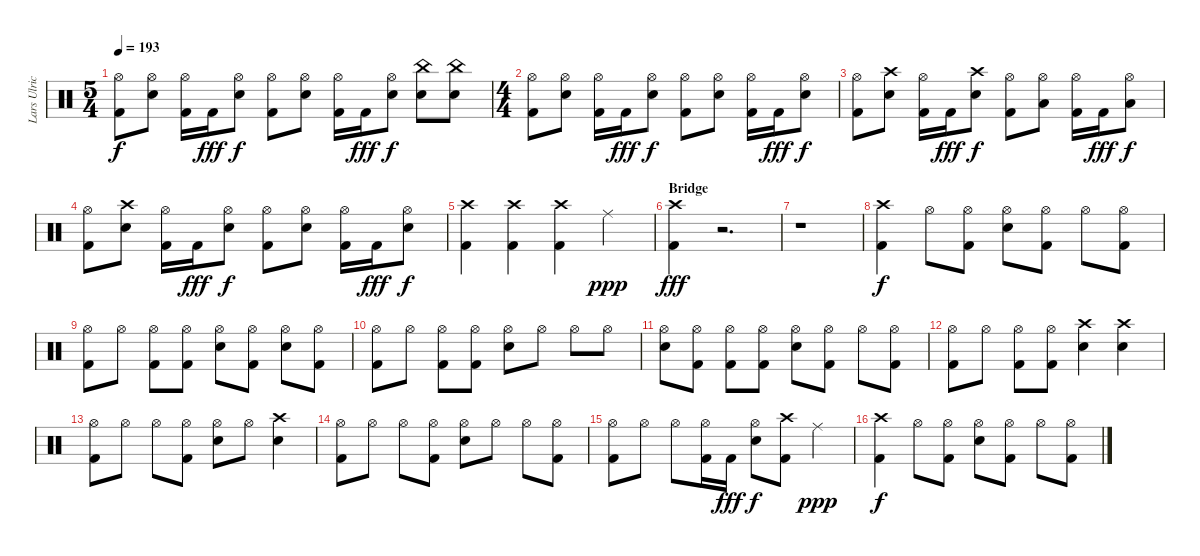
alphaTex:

\track ("Lars Ulrich - Drums" "Lars Ulric") {instrument percussion}
\staff {score}
\articulation defaults
\ts (5 4)
\tempo 193
\clef neutral
\ks c
("Hi-Hat (open)" "Kick (hit) 2").8{dy f} ("Hi-Hat (open)" "Snare (hit) 2").8 ("Hi-Hat (open)" "Kick (hit) 2").16 "Kick (hit) 2".16{dy fff} ("Hi-Hat (open)" "Snare (hit) 2").8{dy f} ("Hi-Hat (open)" "Kick (hit) 2").8 ("Hi-Hat (open)" "Snare (hit) 2").8 ("Hi-Hat (open)" "Kick (hit) 2").16 "Kick (hit) 2".16{dy fff} ("Hi-Hat (open)" "Snare (hit) 2").8{dy f} ("China (hit)" "Snare (hit) 2").8 ("China (hit)" "Snare (hit) 2").8 |
\ts (4 4)
("Hi-Hat (open)" "Kick (hit) 2").8 ("Hi-Hat (open)" "Snare (hit) 2").8 ("Hi-Hat (open)" "Kick (hit) 2").16 "Kick (hit) 2".16{dy fff} ("Hi-Hat (open)" "Snare (hit) 2").8{dy f} ("Hi-Hat (open)" "Kick (hit) 2").8 ("Hi-Hat (open)" "Snare (hit) 2").8 ("Hi-Hat (open)" "Kick (hit) 2").16 "Kick (hit) 2".16{dy fff} ("Hi-Hat (open)" "Snare (hit) 2").8{dy f} |
("Hi-Hat (open)" "Kick (hit) 2").8 ("Crash high (hit)" "Snare (hit) 2").8 ("Hi-Hat (open)" "Kick (hit) 2").16 "Kick (hit) 2".16{dy fff} ("Crash high (hit)" "Snare (hit) 2").8{dy f} ("Hi-Hat (open)" "Kick (hit) 2").8 ("Hi-Hat (open)" "Low Tom (hit)").8 ("Hi-Hat (open)" "Kick (hit) 2").16 "Kick (hit) 2".16{dy fff} ("Hi-Hat (open)" "Low Tom (hit)").8{dy f} |
("Hi-Hat (open)" "Kick (hit) 2").8 ("Crash high (hit)" "Snare (hit) 2").8 ("Hi-Hat (open)" "Kick (hit) 2").16 "Kick (hit) 2".16{dy fff} ("Hi-Hat (open)" "Snare (hit) 2").8{dy f} ("Hi-Hat (open)" "Kick (hit) 2").8 ("Hi-Hat (open)" "Snare (hit) 2").8 ("Hi-Hat (open)" "Kick (hit) 2").16 "Kick (hit) 2".16{dy fff} ("Hi-Hat (open)" "Snare (hit) 2").8{dy f} |
("Crash high (hit)" "Kick (hit) 2").4 ("Crash high (hit)" "Kick (hit) 2").4 ("Crash high (hit)" "Kick (hit) 2").4 "Ride (middle)".4{dy ppp} |
\section ("" "Bridge")
("Crash high (hit)" "Kick (hit) 2").4{dy fff} r.2{d} |
r.1 |
("Crash high (hit)" "Kick (hit) 2").4{dy f} "Hi-Hat (open)".8 ("Hi-Hat (open)" "Kick (hit) 2").8 ("Hi-Hat (open)" "Snare (hit) 2").8 ("Hi-Hat (open)" "Kick (hit) 2").8 "Hi-Hat (open)".8 ("Hi-Hat (open)" "Kick (hit) 2").8 |
("Hi-Hat (open)" "Kick (hit) 2").8 "Hi-Hat (open)".8 ("Hi-Hat (open)" "Kick (hit) 2").8 ("Hi-Hat (open)" "Kick (hit) 2").8 ("Hi-Hat (open)" "Snare (hit) 2").8 ("Hi-Hat (open)" "Kick (hit) 2").8 ("Hi-Hat (open)" "Snare (hit) 2").8 ("Hi-Hat (open)" "Kick (hit) 2").8 |
("Hi-Hat (open)" "Kick (hit) 2").8 "Hi-Hat (open)".8 ("Hi-Hat (open)" "Kick (hit) 2").8 ("Hi-Hat (open)" "Kick (hit) 2").8 ("Hi-Hat (open)" "Snare (hit) 2").8 "Hi-Hat (open)".8 "Hi-Hat (open)".8 "Hi-Hat (open)".8 |
("Hi-Hat (open)" "Snare (hit) 2").8 ("Hi-Hat (open)" "Kick (hit) 2").8 ("Hi-Hat (open)" "Kick (hit) 2").8 ("Hi-Hat (open)" "Kick (hit) 2").8 ("Hi-Hat (open)" "Snare (hit) 2").8 ("Hi-Hat (open)" "Kick (hit) 2").8 "Hi-Hat (open)".8 ("Hi-Hat (open)" "Kick (hit) 2").8 |
("Hi-Hat (open)" "Kick (hit) 2").8 "Hi-Hat (open)".8 ("Hi-Hat (open)" "Kick (hit) 2").8 ("Hi-Hat (open)" "Kick (hit) 2").8 ("Crash high (hit)" "Snare (hit) 2").4 ("Crash high (hit)" "Snare (hit) 2").4 |
("Hi-Hat (open)" "Kick (hit) 2").8 "Hi-Hat (open)".8 "Hi-Hat (open)".8 ("Hi-Hat (open)" "Kick (hit) 2").8 ("Hi-Hat (open)" "Snare (hit) 2").8 "Hi-Hat (open)".8 ("Crash high (hit)" "Snare (hit) 2").4 |
("Hi-Hat (open)" "Kick (hit) 2").8 "Hi-Hat (open)".8 "Hi-Hat (open)".8 ("Hi-Hat (open)" "Kick (hit) 2").8 ("Hi-Hat (open)" "Snare (hit) 2").8 "Hi-Hat (open)".8 "Hi-Hat (open)".8 ("Hi-Hat (open)" "Kick (hit) 2").8 |
("Hi-Hat (open)" "Kick (hit) 2").8 "Hi-Hat (open)".8 "Hi-Hat (open)".8 ("Hi-Hat (open)" "Kick (hit) 2").16 "Kick (hit) 2".16{dy fff} ("Hi-Hat (open)" "Snare (hit) 2").8{dy f} ("Crash high (hit)" "Kick (hit) 2").8 "Ride (middle)".4{dy ppp} |
("Crash high (hit)" "Kick (hit) 2").4{dy f} "Hi-Hat (open)".8 ("Hi-Hat (open)" "Kick (hit) 2").8 ("Hi-Hat (open)" "Snare (hit) 2").8 ("Hi-Hat (open)" "Kick (hit) 2").8 "Hi-Hat (open)".8 ("Hi-Hat (open)" "Kick (hit) 2").8
